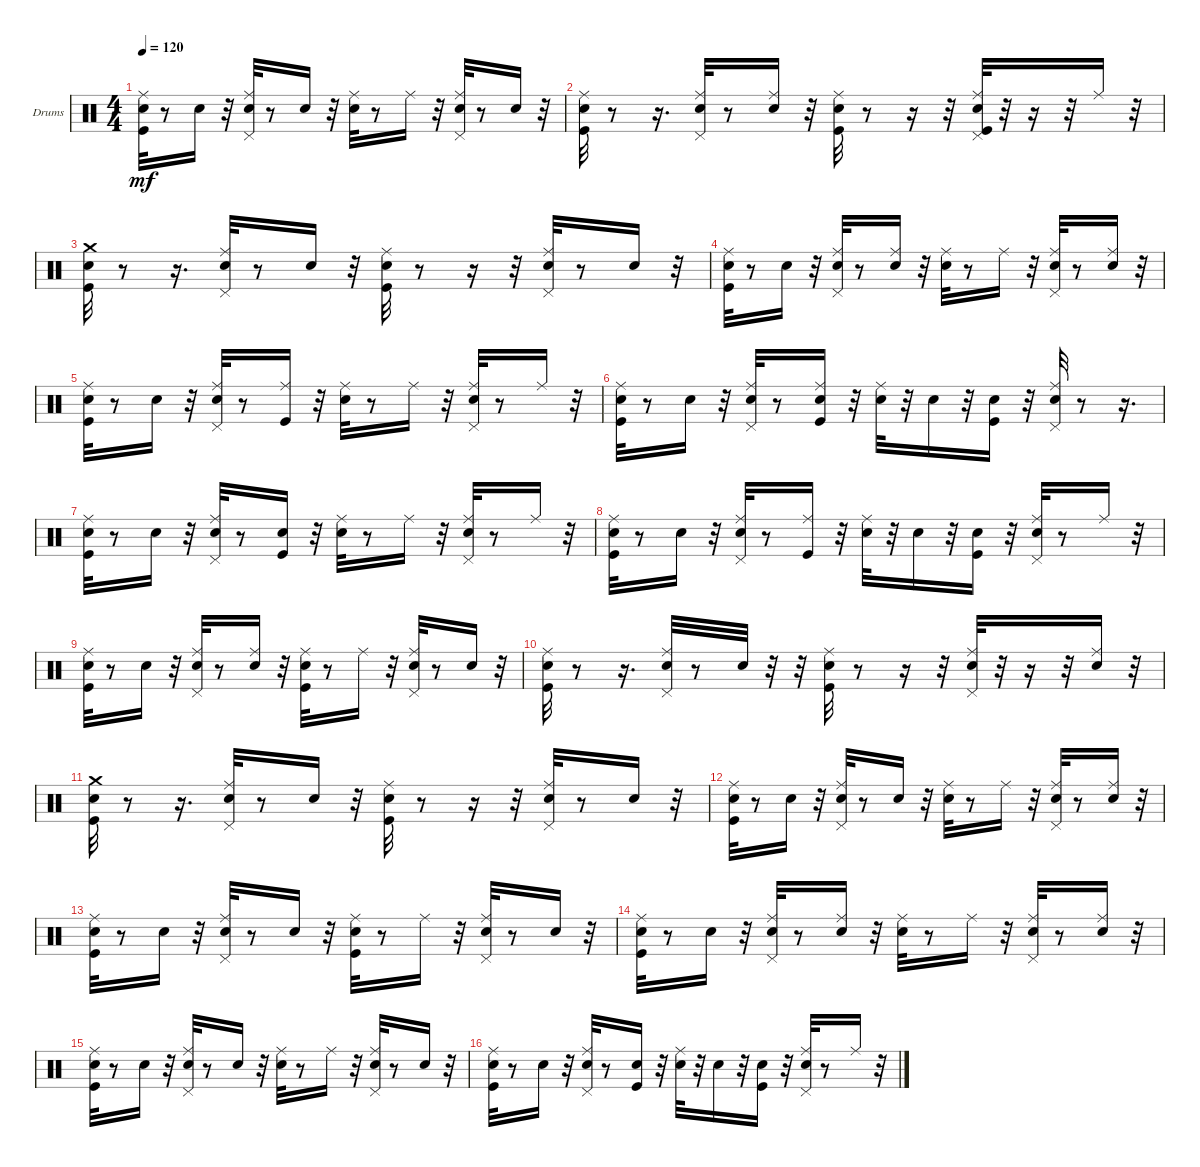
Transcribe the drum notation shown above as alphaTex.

\bracketExtendMode groupsimilarinstruments
\firstSystemTrackNameOrientation horizontal
\otherSystemsTrackNameOrientation horizontal
\track ("Drums   (BB)" "Drums") {instrument percussion}
\staff {score}
\articulation defaults
\ts (4 4)
\tempo 120
\clef neutral
\ks c
("Kick (hit)" "Snare (hit) 2" "Ride (middle)").32{dy mf} r.8 "Snare (hit) 2".16 r.32 ("Snare (hit) 2" "Ride (middle)" "Pedal Hi-Hat (hit)").32 r.8 "Snare (hit) 2".16 r.32 ("Snare (hit) 2" "Ride (middle)").32 r.8 "Ride (middle)".16 r.32 ("Snare (hit) 2" "Ride (middle)" "Pedal Hi-Hat (hit)").32 r.8 "Snare (hit) 2".16 r.32 |
("Kick (hit)" "Snare (hit) 2" "Ride (middle)").32 r.8 r.16{d} ("Snare (hit) 2" "Ride (middle)" "Pedal Hi-Hat (hit)").32 r.8 ("Snare (hit) 2" "Ride (middle)").16 r.32 ("Kick (hit)" "Snare (hit) 2" "Ride (middle)").32 r.8 r.16 r.32 ("Kick (hit)" "Snare (hit) 2" "Ride (middle)" "Pedal Hi-Hat (hit)").32 r.32 r.16 r.32 "Ride (middle)".16 r.32 |
("Kick (hit)" "Snare (hit) 2" "Crash medium (hit)").32 r.8 r.16{d} ("Snare (hit) 2" "Ride (middle)" "Pedal Hi-Hat (hit)").32 r.8 "Snare (hit) 2".16 r.32 ("Kick (hit)" "Snare (hit) 2" "Ride (middle)").32 r.8 r.16 r.32 ("Snare (hit) 2" "Ride (middle)" "Pedal Hi-Hat (hit)").32 r.8 "Snare (hit) 2".16 r.32 |
("Kick (hit)" "Snare (hit) 2" "Ride (middle)").32 r.8 "Snare (hit) 2".16 r.32 ("Snare (hit) 2" "Ride (middle)" "Pedal Hi-Hat (hit)").32 r.8 ("Snare (hit) 2" "Ride (middle)").16 r.32 ("Snare (hit) 2" "Ride (middle)").32 r.8 "Ride (middle)".16 r.32 ("Snare (hit) 2" "Ride (middle)" "Pedal Hi-Hat (hit)").32 r.8 ("Snare (hit) 2" "Ride (middle)").16 r.32 |
("Kick (hit)" "Snare (hit) 2" "Ride (middle)").32 r.8 "Snare (hit) 2".16 r.32 ("Snare (hit) 2" "Ride (middle)" "Pedal Hi-Hat (hit)").32 r.8 ("Kick (hit)" "Ride (middle)").16 r.32 ("Snare (hit) 2" "Ride (middle)").32 r.8 "Ride (middle)".16 r.32 ("Snare (hit) 2" "Ride (middle)" "Pedal Hi-Hat (hit)").32 r.8 "Ride (middle)".16 r.32 |
("Kick (hit)" "Snare (hit) 2" "Ride (middle)").32 r.8 "Snare (hit) 2".16 r.32 ("Snare (hit) 2" "Ride (middle)" "Pedal Hi-Hat (hit)").32 r.8 ("Kick (hit)" "Snare (hit) 2" "Ride (middle)").16 r.32 ("Snare (hit) 2" "Ride (middle)").32 r.32 "Snare (hit) 2".16 r.32 ("Kick (hit)" "Snare (hit) 2").16 r.32 ("Snare (hit) 2" "Ride (middle)" "Pedal Hi-Hat (hit)").32 r.8 r.16{d} |
("Kick (hit)" "Snare (hit) 2" "Ride (middle)").32 r.8 "Snare (hit) 2".16 r.32 ("Snare (hit) 2" "Ride (middle)" "Pedal Hi-Hat (hit)").32 r.8 ("Kick (hit)" "Snare (hit) 2").16 r.32 ("Snare (hit) 2" "Ride (middle)").32 r.8 "Ride (middle)".16 r.32 ("Snare (hit) 2" "Ride (middle)" "Pedal Hi-Hat (hit)").32 r.8 "Ride (middle)".16 r.32 |
("Kick (hit)" "Snare (hit) 2" "Ride (middle)").32 r.8 "Snare (hit) 2".16 r.32 ("Snare (hit) 2" "Ride (middle)" "Pedal Hi-Hat (hit)").32 r.8 ("Kick (hit)" "Ride (middle)").16 r.32 ("Snare (hit) 2" "Ride (middle)").32 r.32 "Snare (hit) 2".16 r.32 ("Kick (hit)" "Snare (hit) 2").16 r.32 ("Snare (hit) 2" "Ride (middle)" "Pedal Hi-Hat (hit)").32 r.8 "Ride (middle)".16 r.32 |
("Kick (hit)" "Snare (hit) 2" "Ride (middle)").32 r.8 "Snare (hit) 2".16 r.32 ("Snare (hit) 2" "Ride (middle)" "Pedal Hi-Hat (hit)").32 r.8 ("Snare (hit) 2" "Ride (middle)").16 r.32 ("Kick (hit)" "Snare (hit) 2" "Ride (middle)").32 r.8 "Ride (middle)".16 r.32 ("Snare (hit) 2" "Ride (middle)" "Pedal Hi-Hat (hit)").32 r.8 "Snare (hit) 2".16 r.32 |
("Kick (hit)" "Snare (hit) 2" "Ride (middle)").32 r.8 r.16{d} ("Snare (hit) 2" "Ride (middle)" "Pedal Hi-Hat (hit)").32 r.8 "Snare (hit) 2".32 r.32 r.32 ("Kick (hit)" "Snare (hit) 2" "Ride (middle)").32 r.8 r.16 r.32 ("Snare (hit) 2" "Ride (middle)" "Pedal Hi-Hat (hit)").32 r.32 r.16 r.32 ("Snare (hit) 2" "Ride (middle)").16 r.32 |
("Kick (hit)" "Snare (hit) 2" "Crash medium (hit)").32 r.8 r.16{d} ("Snare (hit) 2" "Ride (middle)" "Pedal Hi-Hat (hit)").32 r.8 "Snare (hit) 2".16 r.32 ("Kick (hit)" "Snare (hit) 2" "Ride (middle)").32 r.8 r.16 r.32 ("Snare (hit) 2" "Ride (middle)" "Pedal Hi-Hat (hit)").32 r.8 "Snare (hit) 2".16 r.32 |
("Kick (hit)" "Snare (hit) 2" "Ride (middle)").32 r.8 "Snare (hit) 2".16 r.32 ("Snare (hit) 2" "Ride (middle)" "Pedal Hi-Hat (hit)").32 r.8 "Snare (hit) 2".16 r.32 ("Snare (hit) 2" "Ride (middle)").32 r.8 "Ride (middle)".16 r.32 ("Snare (hit) 2" "Ride (middle)" "Pedal Hi-Hat (hit)").32 r.8 ("Snare (hit) 2" "Ride (middle)").16 r.32 |
("Kick (hit)" "Snare (hit) 2" "Ride (middle)").32 r.8 "Snare (hit) 2".16 r.32 ("Snare (hit) 2" "Ride (middle)" "Pedal Hi-Hat (hit)").32 r.8 "Snare (hit) 2".16 r.32 ("Kick (hit)" "Snare (hit) 2" "Ride (middle)").32 r.8 "Ride (middle)".16 r.32 ("Snare (hit) 2" "Ride (middle)" "Pedal Hi-Hat (hit)").32 r.8 "Snare (hit) 2".16 r.32 |
("Kick (hit)" "Snare (hit) 2" "Ride (middle)").32 r.8 "Snare (hit) 2".16 r.32 ("Snare (hit) 2" "Ride (middle)" "Pedal Hi-Hat (hit)").32 r.8 ("Snare (hit) 2" "Ride (middle)").16 r.32 ("Snare (hit) 2" "Ride (middle)").32 r.8 "Ride (middle)".16 r.32 ("Snare (hit) 2" "Ride (middle)" "Pedal Hi-Hat (hit)").32 r.8 ("Snare (hit) 2" "Ride (middle)").16 r.32 |
("Kick (hit)" "Snare (hit) 2" "Ride (middle)").32 r.8 "Snare (hit) 2".16 r.32 ("Snare (hit) 2" "Ride (middle)" "Pedal Hi-Hat (hit)").32 r.8 "Snare (hit) 2".16 r.32 ("Snare (hit) 2" "Ride (middle)").32 r.8 "Ride (middle)".16 r.32 ("Snare (hit) 2" "Ride (middle)" "Pedal Hi-Hat (hit)").32 r.8 "Snare (hit) 2".16 r.32 |
("Kick (hit)" "Snare (hit) 2" "Ride (middle)").32 r.8 "Snare (hit) 2".16 r.32 ("Snare (hit) 2" "Ride (middle)" "Pedal Hi-Hat (hit)").32 r.8 ("Kick (hit)" "Snare (hit) 2").16 r.32 ("Snare (hit) 2" "Ride (middle)").32 r.32 "Snare (hit) 2".16 r.32 ("Kick (hit)" "Snare (hit) 2").16 r.32 ("Snare (hit) 2" "Ride (middle)" "Pedal Hi-Hat (hit)").32 r.8 "Ride (middle)".16 r.32
